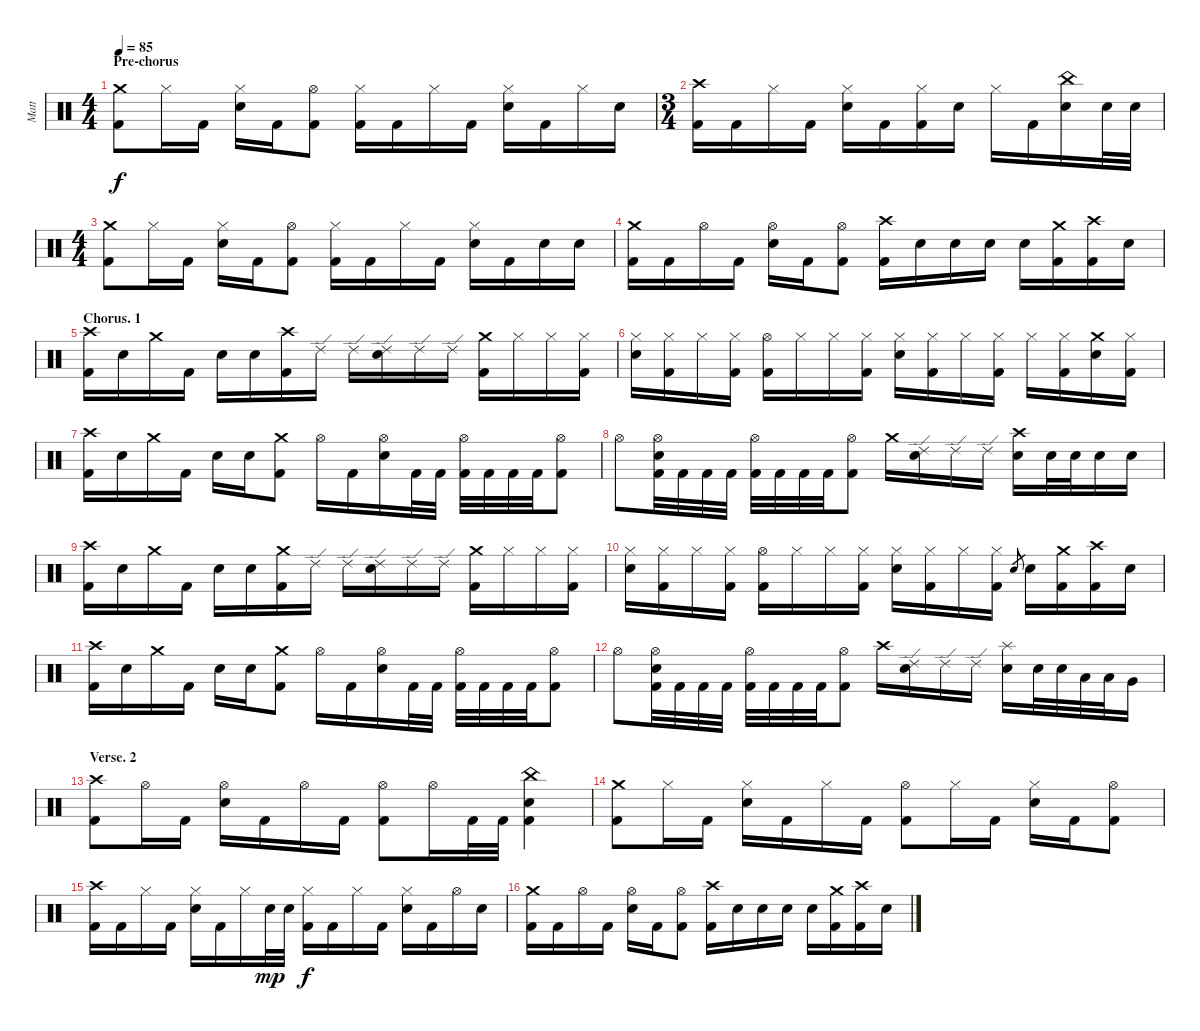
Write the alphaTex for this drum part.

\track ("Matt" "Matt") {instrument percussion}
\staff {score}
\articulation defaults
\ts (4 4)
\section ("" "Pre-chorus")
\tempo 85
\clef neutral
\ks c
("Crash medium (hit)" "Kick (hit) 2").8{dy f} "Hi-Hat (closed)".16 "Kick (hit) 2".16 ("Hi-Hat (closed)" "Electric Snare (hit)").16 "Kick (hit) 2".16 ("Hi-Hat (open)" "Kick (hit) 2").8 ("Hi-Hat (closed)" "Kick (hit) 2").16 "Kick (hit) 2".16 "Hi-Hat (closed)".16 "Kick (hit) 2".16 ("Hi-Hat (closed)" "Electric Snare (hit)").16 "Kick (hit) 2".16 "Hi-Hat (closed)".16 "Electric Snare (hit)".16 |
\ts (3 4)
("Crash high (hit)" "Kick (hit) 2").16 "Kick (hit) 2".16 "Hi-Hat (closed)".16 "Kick (hit) 2".16 ("Hi-Hat (closed)" "Electric Snare (hit)").16 "Kick (hit) 2".16 ("Hi-Hat (closed)" "Kick (hit) 2").16 "Electric Snare (hit)".16 "Hi-Hat (closed)".16 "Kick (hit) 2".16 ("China (hit)" "Electric Snare (hit)").16 "Electric Snare (hit)".32 "Electric Snare (hit)".32 |
\ts (4 4)
("Crash medium (hit)" "Kick (hit) 2").8 "Hi-Hat (closed)".16 "Kick (hit) 2".16 ("Hi-Hat (closed)" "Electric Snare (hit)").16 "Kick (hit) 2".16 ("Hi-Hat (open)" "Kick (hit) 2").8 ("Hi-Hat (closed)" "Kick (hit) 2").16 "Kick (hit) 2".16 "Hi-Hat (closed)".16 "Kick (hit) 2".16 ("Hi-Hat (closed)" "Electric Snare (hit)").16 "Kick (hit) 2".16 "Electric Snare (hit)".16 "Electric Snare (hit)".16 |
("Crash medium (hit)" "Kick (hit) 2").16 "Kick (hit) 2".16 "Hi-Hat (open)".16 "Kick (hit) 2".16 ("Hi-Hat (open)" "Electric Snare (hit)").16 "Kick (hit) 2".16 ("Hi-Hat (open)" "Kick (hit) 2").8 ("Crash high (hit)" "Kick (hit) 2").16 "Electric Snare (hit)".16 "Electric Snare (hit)".16 "Electric Snare (hit)".16 "Electric Snare (hit)".16 ("Crash medium (hit)" "Kick (hit) 2").16 ("Crash high (hit)" "Kick (hit) 2").16 "Electric Snare (hit)".16 |
\section ("" "Chorus. 1")
("Crash high (hit)" "Kick (hit) 2").16 "Electric Snare (hit)".16 "Crash medium (hit)".16 "Kick (hit) 2".16 "Electric Snare (hit)".16 "Electric Snare (hit)".16 ("Crash high (hit)" "Kick (hit) 2").16 "Ride (edge) 2".16 "Ride (edge) 2".16 ("Ride (edge) 2" "Electric Snare (hit)").16 "Ride (edge) 2".16 "Ride (edge) 2".16 ("Crash medium (hit)" "Kick (hit) 2").16 "Hi-Hat (closed)".16 "Hi-Hat (closed)".16 ("Hi-Hat (closed)" "Kick (hit) 2").16 |
("Hi-Hat (closed)" "Electric Snare (hit)").16 ("Hi-Hat (closed)" "Kick (hit) 2").16 "Hi-Hat (closed)".16 ("Hi-Hat (closed)" "Kick (hit) 2").16 ("Hi-Hat (open)" "Kick (hit) 2").16 "Hi-Hat (closed)".16 "Hi-Hat (closed)".16 ("Hi-Hat (closed)" "Kick (hit) 2").16 ("Hi-Hat (closed)" "Electric Snare (hit)").16 ("Hi-Hat (closed)" "Kick (hit) 2").16 "Hi-Hat (closed)".16 ("Hi-Hat (closed)" "Kick (hit) 2").16 "Hi-Hat (closed)".16 ("Hi-Hat (closed)" "Kick (hit) 2").16 ("Crash medium (hit)" "Electric Snare (hit)").16 ("Hi-Hat (closed)" "Kick (hit) 2").16 |
("Crash high (hit)" "Kick (hit) 2").16 "Electric Snare (hit)".16 "Crash medium (hit)".16 "Kick (hit) 2".16 "Electric Snare (hit)".16 "Electric Snare (hit)".16 ("Crash medium (hit)" "Kick (hit) 2").8 "Hi-Hat (open)".16 "Kick (hit) 2".16 ("Hi-Hat (open)" "Electric Snare (hit)").16 "Kick (hit) 2".32 "Kick (hit) 2".32 ("Hi-Hat (open)" "Kick (hit) 2").32 "Kick (hit) 2".32 "Kick (hit) 2".32 "Kick (hit) 2".32 ("Hi-Hat (open)" "Kick (hit) 2").8 |
"Hi-Hat (open)".8 ("Hi-Hat (open)" "Electric Snare (hit)" "Kick (hit) 2").32 "Kick (hit) 2".32 "Kick (hit) 2".32 "Kick (hit) 2".32 ("Hi-Hat (open)" "Kick (hit) 2").32 "Kick (hit) 2".32 "Kick (hit) 2".32 "Kick (hit) 2".32 ("Hi-Hat (open)" "Kick (hit) 2").8 "Crash medium (hit)".16 ("Ride (edge) 2" "Electric Snare (hit)").16 "Ride (edge) 2".16 "Ride (edge) 2".16 ("Crash high (hit)" "Electric Snare (hit)").16 "Electric Snare (hit)".32 "Electric Snare (hit)".32 "Electric Snare (hit)".16 "Electric Snare (hit)".16 |
("Crash high (hit)" "Kick (hit) 2").16 "Electric Snare (hit)".16 "Crash medium (hit)".16 "Kick (hit) 2".16 "Electric Snare (hit)".16 "Electric Snare (hit)".16 ("Crash medium (hit)" "Kick (hit) 2").16 "Ride (edge) 2".16 "Ride (edge) 2".16 ("Ride (edge) 2" "Electric Snare (hit)").16 "Ride (edge) 2".16 "Ride (edge) 2".16 ("Crash medium (hit)" "Kick (hit) 2").16 "Hi-Hat (closed)".16 "Hi-Hat (closed)".16 ("Hi-Hat (closed)" "Kick (hit) 2").16 |
("Hi-Hat (closed)" "Electric Snare (hit)").16 ("Hi-Hat (closed)" "Kick (hit) 2").16 "Hi-Hat (closed)".16 ("Hi-Hat (closed)" "Kick (hit) 2").16 ("Hi-Hat (open)" "Kick (hit) 2").16 "Hi-Hat (closed)".16 "Hi-Hat (closed)".16 ("Hi-Hat (closed)" "Kick (hit) 2").16 ("Hi-Hat (closed)" "Electric Snare (hit)").16 ("Hi-Hat (closed)" "Kick (hit) 2").16 "Hi-Hat (closed)".16 ("Hi-Hat (closed)" "Kick (hit) 2").16 "Electric Snare (hit)".8{gr} "Electric Snare (hit)".16 ("Crash medium (hit)" "Kick (hit) 2").16 ("Crash high (hit)" "Kick (hit) 2").16 "Electric Snare (hit)".16 |
("Crash high (hit)" "Kick (hit) 2").16 "Electric Snare (hit)".16 "Crash medium (hit)".16 "Kick (hit) 2".16 "Electric Snare (hit)".16 "Electric Snare (hit)".16 ("Crash medium (hit)" "Kick (hit) 2").8 "Hi-Hat (open)".16 "Kick (hit) 2".16 ("Hi-Hat (open)" "Electric Snare (hit)").16 "Kick (hit) 2".32 "Kick (hit) 2".32 ("Hi-Hat (open)" "Kick (hit) 2").32 "Kick (hit) 2".32 "Kick (hit) 2".32 "Kick (hit) 2".32 ("Hi-Hat (open)" "Kick (hit) 2").8 |
"Hi-Hat (open)".8 ("Hi-Hat (open)" "Electric Snare (hit)" "Kick (hit) 2").32 "Kick (hit) 2".32 "Kick (hit) 2".32 "Kick (hit) 2".32 ("Hi-Hat (open)" "Kick (hit) 2").32 "Kick (hit) 2".32 "Kick (hit) 2".32 "Kick (hit) 2".32 ("Hi-Hat (open)" "Kick (hit) 2").8 "Crash high (hit)".16 ("Ride (edge) 2" "Electric Snare (hit)").16 "Ride (edge) 2".16 "Ride (edge) 2".16 ("Splash (hit)" "Electric Snare (hit)").16 "Electric Snare (hit)".32 "Electric Snare (hit)".32 "Low Tom (hit)".32 "Low Tom (hit)".32 "Very Low Tom (hit)".16 |
\section ("" "Verse. 2")
("Crash high (hit)" "Kick (hit) 2").8 "Hi-Hat (open)".16 "Kick (hit) 2".16 ("Hi-Hat (open)" "Electric Snare (hit)").16 "Kick (hit) 2".16 "Hi-Hat (open)".16 "Kick (hit) 2".16 ("Hi-Hat (open)" "Kick (hit) 2").8 "Hi-Hat (open)".16 "Kick (hit) 2".32 "Kick (hit) 2".32 ("China (hit)" "Electric Snare (hit)" "Kick (hit) 2").4 |
("Crash medium (hit)" "Kick (hit) 2").8 "Hi-Hat (closed)".16 "Kick (hit) 2".16 ("Hi-Hat (closed)" "Electric Snare (hit)").16 "Kick (hit) 2".16 "Hi-Hat (closed)".16 "Kick (hit) 2".16 ("Hi-Hat (open)" "Kick (hit) 2").8 "Hi-Hat (closed)".16 "Kick (hit) 2".16 ("Hi-Hat (closed)" "Electric Snare (hit)").16 "Kick (hit) 2".16 ("Hi-Hat (open)" "Kick (hit) 2").8 |
("Crash high (hit)" "Kick (hit) 2").16 "Kick (hit) 2".16 "Hi-Hat (closed)".16 "Kick (hit) 2".16 ("Hi-Hat (closed)" "Electric Snare (hit)").16 "Kick (hit) 2".16 "Hi-Hat (closed)".16 "Electric Snare (hit)".32{dy mp} "Electric Snare (hit)".32 ("Hi-Hat (closed)" "Kick (hit) 2").16{dy f} "Kick (hit) 2".16 "Hi-Hat (closed)".16 "Kick (hit) 2".16 ("Hi-Hat (closed)" "Electric Snare (hit)").16 "Kick (hit) 2".16 "Hi-Hat (open)".16 "Electric Snare (hit)".16 |
("Crash medium (hit)" "Kick (hit) 2").16 "Kick (hit) 2".16 "Hi-Hat (open)".16 "Kick (hit) 2".16 ("Hi-Hat (open)" "Electric Snare (hit)").16 "Kick (hit) 2".16 ("Hi-Hat (open)" "Kick (hit) 2").8 ("Crash high (hit)" "Kick (hit) 2").16 "Electric Snare (hit)".16 "Electric Snare (hit)".16 "Electric Snare (hit)".16 "Electric Snare (hit)".16 ("Crash medium (hit)" "Kick (hit) 2").16 ("Crash high (hit)" "Kick (hit) 2").16 "Electric Snare (hit)".16
